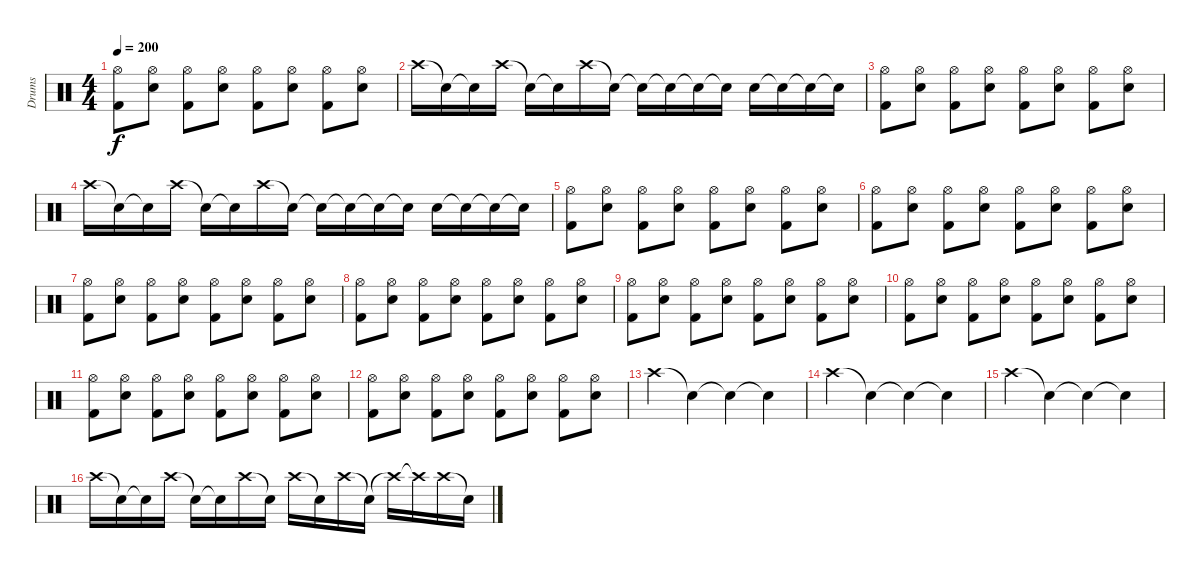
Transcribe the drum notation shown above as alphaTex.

\track ("Drums" "Drums") {instrument percussion}
\staff {score}
\articulation defaults
\ts (4 4)
\tempo 200
\clef neutral
\ks c
("Kick (hit) 2" "Hi-Hat (open)").8{dy f} ("Snare (hit) 2" "Hi-Hat (open)").8 ("Kick (hit) 2" "Hi-Hat (open)").8 ("Snare (hit) 2" "Hi-Hat (open)").8 ("Kick (hit) 2" "Hi-Hat (open)").8 ("Snare (hit) 2" "Hi-Hat (open)").8 ("Kick (hit) 2" "Hi-Hat (open)").8 ("Snare (hit) 2" "Hi-Hat (open)").8 |
"Crash high (hit)".16 "Snare (hit)"{t}.16 "Snare (hit)"{t}.16 "Crash high (hit)".16 "Snare (hit)"{t}.16 "Snare (hit)"{t}.16 "Crash high (hit)".16 "Snare (hit)"{t}.16 "Snare (hit)"{t}.16 "Snare (hit)"{t}.16 "Snare (hit) 2"{t}.16 "Snare (hit)"{t}.16 "Snare (hit) 2".16 "Snare (hit)"{t}.16 "Snare (hit)"{t}.16 "Snare (hit)"{t}.16 |
("Kick (hit) 2" "Hi-Hat (open)").8 ("Snare (hit) 2" "Hi-Hat (open)").8 ("Kick (hit) 2" "Hi-Hat (open)").8 ("Snare (hit) 2" "Hi-Hat (open)").8 ("Kick (hit) 2" "Hi-Hat (open)").8 ("Snare (hit) 2" "Hi-Hat (open)").8 ("Kick (hit) 2" "Hi-Hat (open)").8 ("Snare (hit) 2" "Hi-Hat (open)").8 |
"Crash high (hit)".16 "Snare (hit)"{t}.16 "Snare (hit)"{t}.16 "Crash high (hit)".16 "Snare (hit)"{t}.16 "Snare (hit)"{t}.16 "Crash high (hit)".16 "Snare (hit)"{t}.16 "Snare (hit)"{t}.16 "Snare (hit)"{t}.16 "Snare (hit) 2"{t}.16 "Snare (hit)"{t}.16 "Snare (hit) 2".16 "Snare (hit)"{t}.16 "Snare (hit)"{t}.16 "Snare (hit)"{t}.16 |
("Kick (hit) 2" "Hi-Hat (open)").8 ("Snare (hit) 2" "Hi-Hat (open)").8 ("Kick (hit) 2" "Hi-Hat (open)").8 ("Snare (hit) 2" "Hi-Hat (open)").8 ("Kick (hit) 2" "Hi-Hat (open)").8 ("Snare (hit) 2" "Hi-Hat (open)").8 ("Kick (hit) 2" "Hi-Hat (open)").8 ("Snare (hit) 2" "Hi-Hat (open)").8 |
("Kick (hit) 2" "Hi-Hat (open)").8 ("Snare (hit) 2" "Hi-Hat (open)").8 ("Kick (hit) 2" "Hi-Hat (open)").8 ("Snare (hit) 2" "Hi-Hat (open)").8 ("Kick (hit) 2" "Hi-Hat (open)").8 ("Snare (hit) 2" "Hi-Hat (open)").8 ("Kick (hit) 2" "Hi-Hat (open)").8 ("Snare (hit) 2" "Hi-Hat (open)").8 |
("Kick (hit) 2" "Hi-Hat (open)").8 ("Snare (hit) 2" "Hi-Hat (open)").8 ("Kick (hit) 2" "Hi-Hat (open)").8 ("Snare (hit) 2" "Hi-Hat (open)").8 ("Kick (hit) 2" "Hi-Hat (open)").8 ("Snare (hit) 2" "Hi-Hat (open)").8 ("Kick (hit) 2" "Hi-Hat (open)").8 ("Snare (hit) 2" "Hi-Hat (open)").8 |
("Kick (hit) 2" "Hi-Hat (open)").8 ("Snare (hit) 2" "Hi-Hat (open)").8 ("Kick (hit) 2" "Hi-Hat (open)").8 ("Snare (hit) 2" "Hi-Hat (open)").8 ("Kick (hit) 2" "Hi-Hat (open)").8 ("Snare (hit) 2" "Hi-Hat (open)").8 ("Kick (hit) 2" "Hi-Hat (open)").8 ("Snare (hit) 2" "Hi-Hat (open)").8 |
("Kick (hit) 2" "Hi-Hat (open)").8 ("Snare (hit) 2" "Hi-Hat (open)").8 ("Kick (hit) 2" "Hi-Hat (open)").8 ("Snare (hit) 2" "Hi-Hat (open)").8 ("Kick (hit) 2" "Hi-Hat (open)").8 ("Snare (hit) 2" "Hi-Hat (open)").8 ("Kick (hit) 2" "Hi-Hat (open)").8 ("Snare (hit) 2" "Hi-Hat (open)").8 |
("Kick (hit) 2" "Hi-Hat (open)").8 ("Snare (hit) 2" "Hi-Hat (open)").8 ("Kick (hit) 2" "Hi-Hat (open)").8 ("Snare (hit) 2" "Hi-Hat (open)").8 ("Kick (hit) 2" "Hi-Hat (open)").8 ("Snare (hit) 2" "Hi-Hat (open)").8 ("Kick (hit) 2" "Hi-Hat (open)").8 ("Snare (hit) 2" "Hi-Hat (open)").8 |
("Kick (hit) 2" "Hi-Hat (open)").8 ("Snare (hit) 2" "Hi-Hat (open)").8 ("Kick (hit) 2" "Hi-Hat (open)").8 ("Snare (hit) 2" "Hi-Hat (open)").8 ("Kick (hit) 2" "Hi-Hat (open)").8 ("Snare (hit) 2" "Hi-Hat (open)").8 ("Kick (hit) 2" "Hi-Hat (open)").8 ("Snare (hit) 2" "Hi-Hat (open)").8 |
("Kick (hit) 2" "Hi-Hat (open)").8 ("Snare (hit) 2" "Hi-Hat (open)").8 ("Kick (hit) 2" "Hi-Hat (open)").8 ("Snare (hit) 2" "Hi-Hat (open)").8 ("Kick (hit) 2" "Hi-Hat (open)").8 ("Snare (hit) 2" "Hi-Hat (open)").8 ("Kick (hit) 2" "Hi-Hat (open)").8 ("Snare (hit) 2" "Hi-Hat (open)").8 |
"Crash high (hit)".4 "Snare (hit)"{t}.4 "Snare (hit)"{t}.4 "Snare (hit)"{t}.4 |
"Crash high (hit)".4 "Snare (hit)"{t}.4 "Snare (hit)"{t}.4 "Snare (hit)"{t}.4 |
"Crash high (hit)".4 "Snare (hit)"{t}.4 "Snare (hit)"{t}.4 "Snare (hit)"{t}.4 |
"Crash high (hit)".16 "Snare (hit)"{t}.16 "Snare (hit)"{t}.16 "Crash high (hit)".16 "Snare (hit)"{t}.16 "Snare (hit)"{t}.16 "Crash high (hit)".16 "Snare (hit)"{t}.16 "Crash high (hit)".16 "Snare (hit)"{t}.16 "Crash high (hit)".16 "Snare (hit)"{t}.16 "Crash high (hit)"{t}.16 "Crash high (hit)"{t}.16 "Crash high (hit)".16 "Snare (hit)"{t}.16
